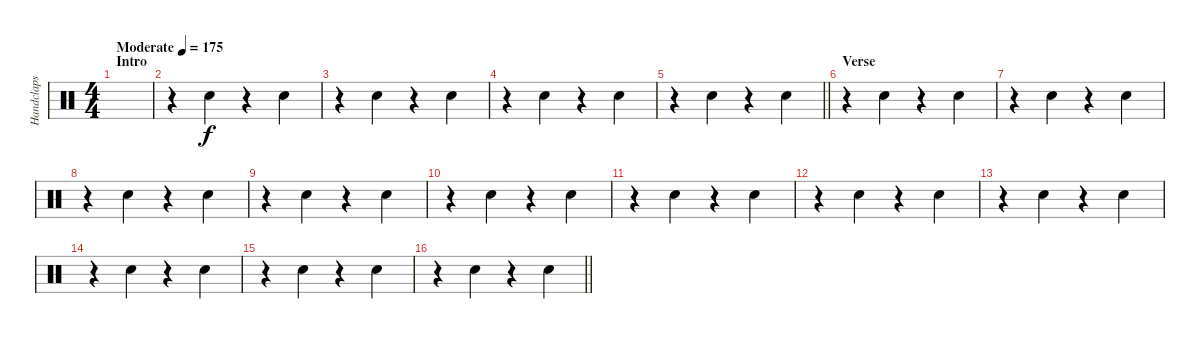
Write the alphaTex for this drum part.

\track ("Handclaps" "Handclaps") {instrument percussion}
\staff {score}
\articulation defaults
\ts (4 4)
\section ("" "Intro")
\tempo (175 "Moderate")
\clef neutral
\ks c
|
r.4 "Hand Clap (hit)".4 r.4 "Hand Clap (hit)".4 |
r.4 "Hand Clap (hit)".4 r.4 "Hand Clap (hit)".4 |
r.4 "Hand Clap (hit)".4 r.4 "Hand Clap (hit)".4 |
\barLineRight lightlight
r.4 "Hand Clap (hit)".4 r.4 "Hand Clap (hit)".4 |
\section ("" "Verse")
r.4 "Hand Clap (hit)".4 r.4 "Hand Clap (hit)".4 |
r.4 "Hand Clap (hit)".4 r.4 "Hand Clap (hit)".4 |
r.4 "Hand Clap (hit)".4 r.4 "Hand Clap (hit)".4 |
r.4 "Hand Clap (hit)".4 r.4 "Hand Clap (hit)".4 |
r.4 "Hand Clap (hit)".4 r.4 "Hand Clap (hit)".4 |
r.4 "Hand Clap (hit)".4 r.4 "Hand Clap (hit)".4 |
r.4 "Hand Clap (hit)".4 r.4 "Hand Clap (hit)".4 |
r.4 "Hand Clap (hit)".4 r.4 "Hand Clap (hit)".4 |
r.4 "Hand Clap (hit)".4 r.4 "Hand Clap (hit)".4 |
r.4 "Hand Clap (hit)".4 r.4 "Hand Clap (hit)".4 |
\barLineRight lightlight
r.4 "Hand Clap (hit)".4 r.4 "Hand Clap (hit)".4
